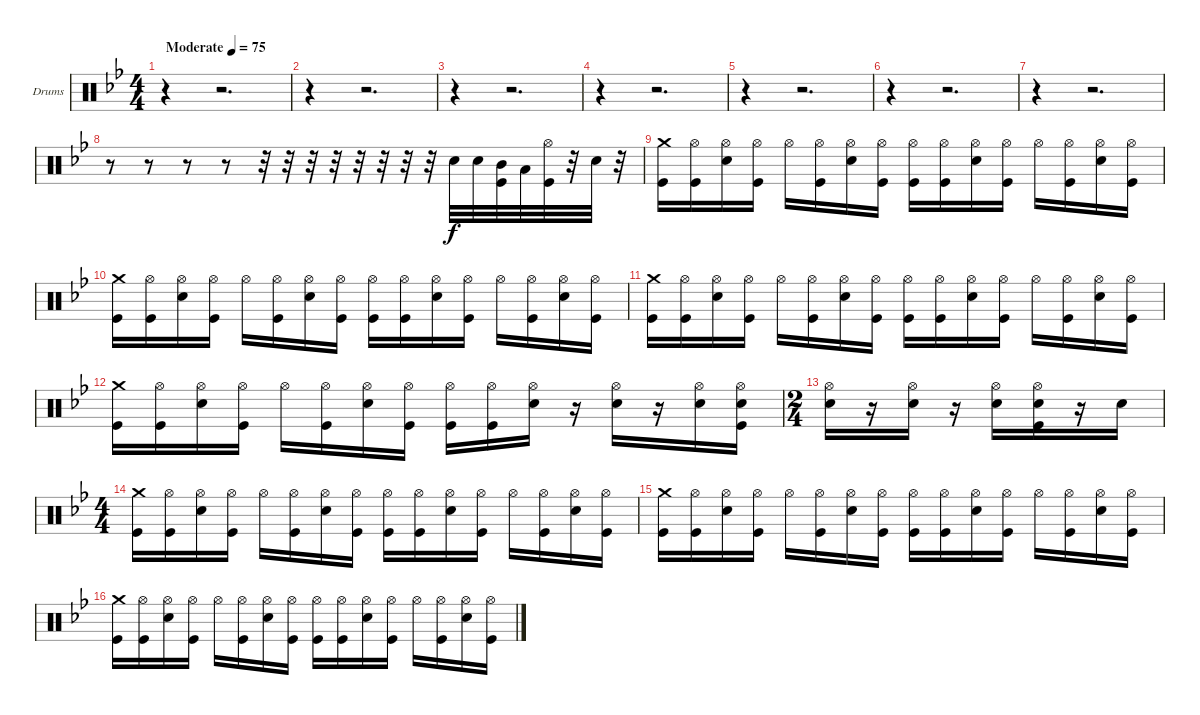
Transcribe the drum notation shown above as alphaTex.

\bracketExtendMode groupsimilarinstruments
\firstSystemTrackNameOrientation horizontal
\otherSystemsTrackNameOrientation horizontal
\track ("Drumkit" "Drums") {instrument percussion}
\staff {score}
\articulation defaults
\ts (4 4)
\beaming (8 2 2 2 2)
\tempo (75 "Moderate")
\clef neutral
\ks bb
r.4{dy f} r.2{d} |
r.4 r.2{d} |
r.4 r.2{d} |
r.4 r.2{d} |
r.4 r.2{d} |
r.4 r.2{d} |
r.4 r.2{d} |
r.8 r.8 r.8 r.8 r.32 r.32 r.32 r.32 r.32 r.32 r.32 r.32 "Snare (hit) 2".32 "Snare (hit) 2".32 ("Mid Tom (hit)" "Kick (hit)").32 "Low Tom (hit)".32 ("Hi-Hat (open)" "Kick (hit)").32 r.32 "Snare (hit) 2".32 r.32 |
("Crash medium (hit)" "Kick (hit)").16 ("Hi-Hat (open)" "Kick (hit)").16 ("Hi-Hat (open)" "Snare (hit) 2").16 ("Hi-Hat (open)" "Kick (hit)").16 "Hi-Hat (open)".16 ("Hi-Hat (open)" "Kick (hit)").16 ("Hi-Hat (open)" "Snare (hit) 2").16 ("Hi-Hat (open)" "Kick (hit)").16 ("Hi-Hat (open)" "Kick (hit)").16 ("Hi-Hat (open)" "Kick (hit)").16 ("Hi-Hat (open)" "Snare (hit) 2").16 ("Hi-Hat (open)" "Kick (hit)").16 "Hi-Hat (open)".16 ("Hi-Hat (open)" "Kick (hit)").16 ("Hi-Hat (open)" "Snare (hit) 2").16 ("Hi-Hat (open)" "Kick (hit)").16 |
("Crash medium (hit)" "Kick (hit)").16 ("Hi-Hat (open)" "Kick (hit)").16 ("Hi-Hat (open)" "Snare (hit) 2").16 ("Hi-Hat (open)" "Kick (hit)").16 "Hi-Hat (open)".16 ("Hi-Hat (open)" "Kick (hit)").16 ("Hi-Hat (open)" "Snare (hit) 2").16 ("Hi-Hat (open)" "Kick (hit)").16 ("Hi-Hat (open)" "Kick (hit)").16 ("Hi-Hat (open)" "Kick (hit)").16 ("Hi-Hat (open)" "Snare (hit) 2").16 ("Hi-Hat (open)" "Kick (hit)").16 "Hi-Hat (open)".16 ("Hi-Hat (open)" "Kick (hit)").16 ("Hi-Hat (open)" "Snare (hit) 2").16 ("Hi-Hat (open)" "Kick (hit)").16 |
("Crash medium (hit)" "Kick (hit)").16 ("Hi-Hat (open)" "Kick (hit)").16 ("Hi-Hat (open)" "Snare (hit) 2").16 ("Hi-Hat (open)" "Kick (hit)").16 "Hi-Hat (open)".16 ("Hi-Hat (open)" "Kick (hit)").16 ("Hi-Hat (open)" "Snare (hit) 2").16 ("Hi-Hat (open)" "Kick (hit)").16 ("Hi-Hat (open)" "Kick (hit)").16 ("Hi-Hat (open)" "Kick (hit)").16 ("Hi-Hat (open)" "Snare (hit) 2").16 ("Hi-Hat (open)" "Kick (hit)").16 "Hi-Hat (open)".16 ("Hi-Hat (open)" "Kick (hit)").16 ("Hi-Hat (open)" "Snare (hit) 2").16 ("Hi-Hat (open)" "Kick (hit)").16 |
("Crash medium (hit)" "Kick (hit)").16 ("Hi-Hat (open)" "Kick (hit)").16 ("Hi-Hat (open)" "Snare (hit) 2").16 ("Hi-Hat (open)" "Kick (hit)").16 "Hi-Hat (open)".16 ("Hi-Hat (open)" "Kick (hit)").16 ("Hi-Hat (open)" "Snare (hit) 2").16 ("Hi-Hat (open)" "Kick (hit)").16 ("Hi-Hat (open)" "Kick (hit)").16 ("Hi-Hat (open)" "Kick (hit)").16 ("Hi-Hat (open)" "Snare (hit) 2").16 r.16 ("Hi-Hat (open)" "Snare (hit) 2").16 r.16 ("Hi-Hat (open)" "Snare (hit) 2").16 ("Hi-Hat (open)" "Snare (hit) 2" "Kick (hit)").16 |
\ts (2 4)
\beaming (8 2 2)
("Hi-Hat (open)" "Snare (hit) 2").16 r.16 ("Hi-Hat (open)" "Snare (hit) 2").16 r.16 ("Hi-Hat (open)" "Snare (hit) 2").16 ("Hi-Hat (open)" "Snare (hit) 2" "Kick (hit)").16 r.16 "Snare (hit) 2".16 |
\ts (4 4)
\beaming (8 2 2 2 2)
("Crash medium (hit)" "Kick (hit)").16 ("Hi-Hat (open)" "Kick (hit)").16 ("Hi-Hat (open)" "Snare (hit) 2").16 ("Hi-Hat (open)" "Kick (hit)").16 "Hi-Hat (open)".16 ("Hi-Hat (open)" "Kick (hit)").16 ("Hi-Hat (open)" "Snare (hit) 2").16 ("Hi-Hat (open)" "Kick (hit)").16 ("Hi-Hat (open)" "Kick (hit)").16 ("Hi-Hat (open)" "Kick (hit)").16 ("Hi-Hat (open)" "Snare (hit) 2").16 ("Hi-Hat (open)" "Kick (hit)").16 "Hi-Hat (open)".16 ("Hi-Hat (open)" "Kick (hit)").16 ("Hi-Hat (open)" "Snare (hit) 2").16 ("Hi-Hat (open)" "Kick (hit)").16 |
("Crash medium (hit)" "Kick (hit)").16 ("Hi-Hat (open)" "Kick (hit)").16 ("Hi-Hat (open)" "Snare (hit) 2").16 ("Hi-Hat (open)" "Kick (hit)").16 "Hi-Hat (open)".16 ("Hi-Hat (open)" "Kick (hit)").16 ("Hi-Hat (open)" "Snare (hit) 2").16 ("Hi-Hat (open)" "Kick (hit)").16 ("Hi-Hat (open)" "Kick (hit)").16 ("Hi-Hat (open)" "Kick (hit)").16 ("Hi-Hat (open)" "Snare (hit) 2").16 ("Hi-Hat (open)" "Kick (hit)").16 "Hi-Hat (open)".16 ("Hi-Hat (open)" "Kick (hit)").16 ("Hi-Hat (open)" "Snare (hit) 2").16 ("Hi-Hat (open)" "Kick (hit)").16 |
("Crash medium (hit)" "Kick (hit)").16 ("Hi-Hat (open)" "Kick (hit)").16 ("Hi-Hat (open)" "Snare (hit) 2").16 ("Hi-Hat (open)" "Kick (hit)").16 "Hi-Hat (open)".16 ("Hi-Hat (open)" "Kick (hit)").16 ("Hi-Hat (open)" "Snare (hit) 2").16 ("Hi-Hat (open)" "Kick (hit)").16 ("Hi-Hat (open)" "Kick (hit)").16 ("Hi-Hat (open)" "Kick (hit)").16 ("Hi-Hat (open)" "Snare (hit) 2").16 ("Hi-Hat (open)" "Kick (hit)").16 "Hi-Hat (open)".16 ("Hi-Hat (open)" "Kick (hit)").16 ("Hi-Hat (open)" "Snare (hit) 2").16 ("Hi-Hat (open)" "Kick (hit)").16
